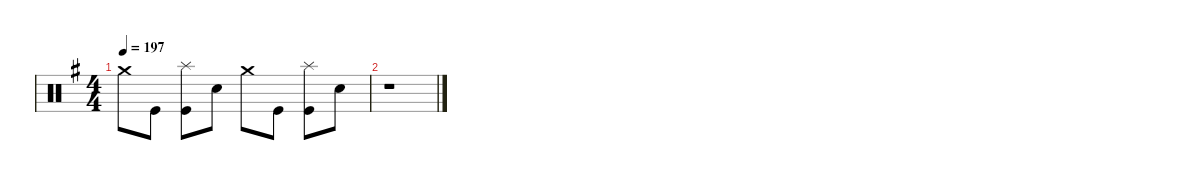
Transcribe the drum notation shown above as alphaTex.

\defaultSystemsLayout 4
\hideDynamics
\bracketExtendMode nobrackets
\singleTrackTrackNamePolicy hidden
\multiTrackTrackNamePolicy hidden
\firstSystemTrackNameMode fullname
\firstSystemTrackNameOrientation horizontal
\otherSystemsTrackNameOrientation horizontal
\track ("Drums" "drm.") {defaultSystemsLayout 4 instrument percussion}
\staff {score}
\articulation defaults
\ts (4 4)
\tempo 197
\clef neutral
\ks eminor "Crash medium (hit)"{acc forcenatural}.8{dy mf beam Down} "Kick (hit)"{acc forcenatural}.8{dy f beam Down}
("Splash (hit)"{acc forcenatural} "Kick (hit)"{acc forcenatural}).8{dy mf beam Down} "Snare (hit) 2"{acc forcenatural}.8{dy f beam Down} "Crash medium (hit)"{acc forcenatural}.8{dy mf beam Down} "Kick (hit)"{acc forcenatural}.8{dy f beam Down} ("Splash (hit)"{acc forcenatural} "Kick (hit)"{acc forcenatural}).8{dy mf beam Down} "Snare (hit) 2"{acc forcenatural}.8{dy f beam Down} |
r.1{beam Down}
